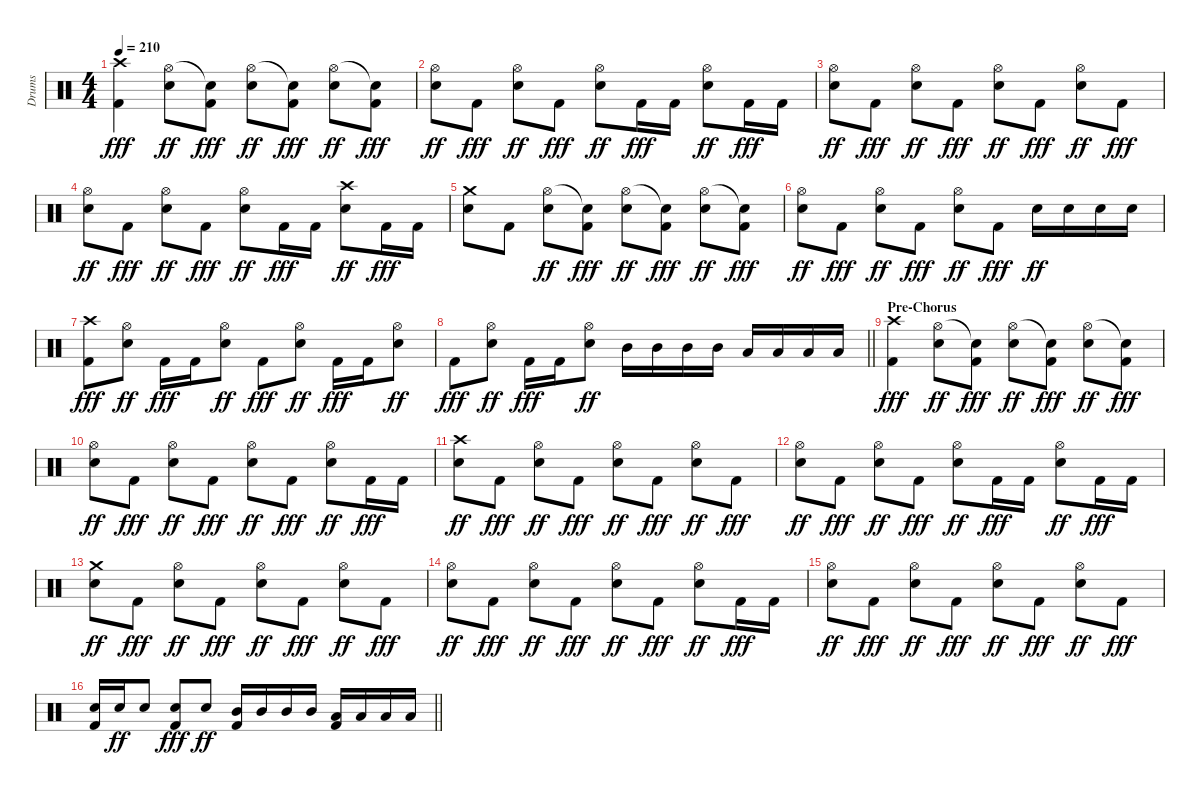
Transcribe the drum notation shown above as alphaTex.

\track ("Drums" "Drums") {instrument percussion}
\staff {score}
\articulation defaults
\ts (4 4)
\tempo 210
\clef neutral
\ks c
("Crash high (hit)" "Kick (hit) 2").4{dy fff} ("Hi-Hat (open)" "Snare (hit) 2").8{dy ff} ("Snare (hit)"{t} "Kick (hit) 2").8{dy fff} ("Hi-Hat (open)" "Snare (hit) 2").8{dy ff} ("Snare (hit)"{t} "Kick (hit) 2").8{dy fff} ("Hi-Hat (open)" "Snare (hit) 2").8{dy ff} ("Snare (hit)"{t} "Kick (hit) 2").8{dy fff} |
("Hi-Hat (open)" "Snare (hit) 2").8{dy ff} "Kick (hit) 2".8{dy fff} ("Hi-Hat (open)" "Snare (hit) 2").8{dy ff} "Kick (hit) 2".8{dy fff} ("Hi-Hat (open)" "Snare (hit) 2").8{dy ff} "Kick (hit) 2".16{dy fff} "Kick (hit) 2".16 ("Hi-Hat (open)" "Snare (hit) 2").8{dy ff} "Kick (hit) 2".16{dy fff} "Kick (hit) 2".16 |
("Hi-Hat (open)" "Snare (hit) 2").8{dy ff} "Kick (hit) 2".8{dy fff} ("Hi-Hat (open)" "Snare (hit) 2").8{dy ff} "Kick (hit) 2".8{dy fff} ("Hi-Hat (open)" "Snare (hit) 2").8{dy ff} "Kick (hit) 2".8{dy fff} ("Hi-Hat (open)" "Snare (hit) 2").8{dy ff} "Kick (hit) 2".8{dy fff} |
("Hi-Hat (open)" "Snare (hit) 2").8{dy ff} "Kick (hit) 2".8{dy fff} ("Hi-Hat (open)" "Snare (hit) 2").8{dy ff} "Kick (hit) 2".8{dy fff} ("Hi-Hat (open)" "Snare (hit) 2").8{dy ff} "Kick (hit) 2".16{dy fff} "Kick (hit) 2".16 ("Crash high (hit)" "Snare (hit) 2").8{dy ff} "Kick (hit) 2".16{dy fff} "Kick (hit) 2".16 |
("Crash medium (hit)" "Snare (hit) 2").8 "Kick (hit) 2".8 ("Hi-Hat (open)" "Snare (hit) 2").8{dy ff} ("Snare (hit)"{t} "Kick (hit) 2").8{dy fff} ("Hi-Hat (open)" "Snare (hit) 2").8{dy ff} ("Snare (hit)"{t} "Kick (hit) 2").8{dy fff} ("Hi-Hat (open)" "Snare (hit) 2").8{dy ff} ("Snare (hit)"{t} "Kick (hit) 2").8{dy fff} |
("Hi-Hat (open)" "Snare (hit) 2").8{dy ff} "Kick (hit) 2".8{dy fff} ("Hi-Hat (open)" "Snare (hit) 2").8{dy ff} "Kick (hit) 2".8{dy fff} ("Hi-Hat (open)" "Snare (hit) 2").8{dy ff} "Kick (hit) 2".8{dy fff} "Snare (hit) 2".16{dy ff} "Snare (hit) 2".16 "Snare (hit) 2".16 "Snare (hit) 2".16 |
("Crash high (hit)" "Kick (hit) 2").8{dy fff} ("Hi-Hat (open)" "Snare (hit) 2").8{dy ff} "Kick (hit) 2".16{dy fff} "Kick (hit) 2".16 ("Hi-Hat (open)" "Snare (hit) 2").8{dy ff} "Kick (hit) 2".8{dy fff} ("Hi-Hat (open)" "Snare (hit) 2").8{dy ff} "Kick (hit) 2".16{dy fff} "Kick (hit) 2".16 ("Hi-Hat (open)" "Snare (hit) 2").8{dy ff} |
\barLineRight lightlight "Kick (hit) 2".8{dy fff}
("Hi-Hat (open)" "Snare (hit) 2").8{dy ff} "Kick (hit) 2".16{dy fff} "Kick (hit) 2".16 ("Hi-Hat (open)" "Snare (hit) 2").8{dy ff} "Mid Tom (hit)".16 "Mid Tom (hit)".16 "Mid Tom (hit)".16 "Mid Tom (hit)".16 "Low Tom (hit)".16 "Low Tom (hit)".16 "Low Tom (hit)".16 "Low Tom (hit)".16 |
\section ("" "Pre-Chorus")
("Crash high (hit)" "Kick (hit) 2").4{dy fff} ("Hi-Hat (open)" "Snare (hit) 2").8{dy ff} ("Snare (hit)"{t} "Kick (hit) 2").8{dy fff} ("Hi-Hat (open)" "Snare (hit) 2").8{dy ff} ("Snare (hit)"{t} "Kick (hit) 2").8{dy fff} ("Hi-Hat (open)" "Snare (hit) 2").8{dy ff} ("Snare (hit)"{t} "Kick (hit) 2").8{dy fff} |
("Hi-Hat (open)" "Snare (hit) 2").8{dy ff} "Kick (hit) 2".8{dy fff} ("Hi-Hat (open)" "Snare (hit) 2").8{dy ff} "Kick (hit) 2".8{dy fff} ("Hi-Hat (open)" "Snare (hit) 2").8{dy ff} "Kick (hit) 2".8{dy fff} ("Hi-Hat (open)" "Snare (hit) 2").8{dy ff} "Kick (hit) 2".16{dy fff} "Kick (hit) 2".16 |
("Crash high (hit)" "Snare (hit) 2").8{dy ff} "Kick (hit) 2".8{dy fff} ("Hi-Hat (open)" "Snare (hit) 2").8{dy ff} "Kick (hit) 2".8{dy fff} ("Hi-Hat (open)" "Snare (hit) 2").8{dy ff} "Kick (hit) 2".8{dy fff} ("Hi-Hat (open)" "Snare (hit) 2").8{dy ff} "Kick (hit) 2".8{dy fff} |
("Hi-Hat (open)" "Snare (hit) 2").8{dy ff} "Kick (hit) 2".8{dy fff} ("Hi-Hat (open)" "Snare (hit) 2").8{dy ff} "Kick (hit) 2".8{dy fff} ("Hi-Hat (open)" "Snare (hit) 2").8{dy ff} "Kick (hit) 2".16{dy fff} "Kick (hit) 2".16 ("Hi-Hat (open)" "Snare (hit) 2").8{dy ff} "Kick (hit) 2".16{dy fff} "Kick (hit) 2".16 |
("Crash medium (hit)" "Snare (hit) 2").8{dy ff} "Kick (hit) 2".8{dy fff} ("Hi-Hat (open)" "Snare (hit) 2").8{dy ff} "Kick (hit) 2".8{dy fff} ("Hi-Hat (open)" "Snare (hit) 2").8{dy ff} "Kick (hit) 2".8{dy fff} ("Hi-Hat (open)" "Snare (hit) 2").8{dy ff} "Kick (hit) 2".8{dy fff} |
("Hi-Hat (open)" "Snare (hit) 2").8{dy ff} "Kick (hit) 2".8{dy fff} ("Hi-Hat (open)" "Snare (hit) 2").8{dy ff} "Kick (hit) 2".8{dy fff} ("Hi-Hat (open)" "Snare (hit) 2").8{dy ff} "Kick (hit) 2".8{dy fff} ("Hi-Hat (open)" "Snare (hit) 2").8{dy ff} "Kick (hit) 2".16{dy fff} "Kick (hit) 2".16 |
("Hi-Hat (open)" "Snare (hit) 2").8{dy ff} "Kick (hit) 2".8{dy fff} ("Hi-Hat (open)" "Snare (hit) 2").8{dy ff} "Kick (hit) 2".8{dy fff} ("Hi-Hat (open)" "Snare (hit) 2").8{dy ff} "Kick (hit) 2".8{dy fff} ("Hi-Hat (open)" "Snare (hit) 2").8{dy ff} "Kick (hit) 2".8{dy fff} |
\barLineRight lightlight
("Snare (hit) 2" "Kick (hit) 2").16 "Snare (hit) 2".16{dy ff} "Snare (hit) 2".8 ("Snare (hit) 2" "Kick (hit) 2").8{dy fff} "Snare (hit) 2".8{dy ff} ("Mid Tom (hit)" "Kick (hit) 2").16 "Mid Tom (hit)".16 "Mid Tom (hit)".16 "Mid Tom (hit)".16 ("Low Tom (hit)" "Kick (hit) 2").16 "Low Tom (hit)".16 "Low Tom (hit)".16 "Low Tom (hit)".16
